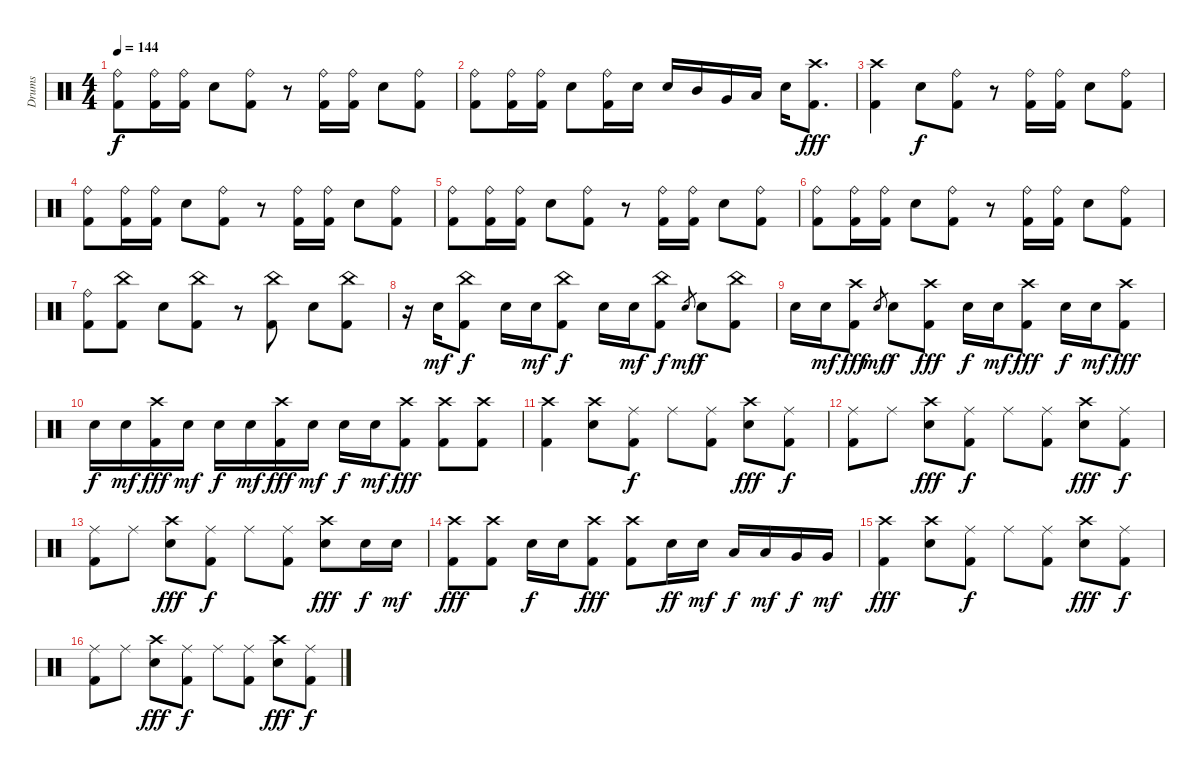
\track ("Drums" "Drums") {instrument percussion}
\staff {score}
\articulation defaults
\ts (4 4)
\tempo 144
\clef neutral
\ks c
("Ride (bell)" "Kick (hit) 2").8{dy f} ("Ride (bell)" "Kick (hit) 2").16 ("Ride (bell)" "Kick (hit) 2").16 "Snare (hit) 2".8 ("Ride (bell)" "Kick (hit) 2").8 r.8 ("Ride (bell)" "Kick (hit) 2").16 ("Ride (bell)" "Kick (hit) 2").16 "Snare (hit) 2".8 ("Ride (bell)" "Kick (hit) 2").8 |
("Ride (bell)" "Kick (hit) 2").8 ("Ride (bell)" "Kick (hit) 2").16 ("Ride (bell)" "Kick (hit) 2").16 "Snare (hit) 2".8 ("Ride (bell)" "Kick (hit) 2").16 "Snare (hit) 2".16 "Snare (hit) 2".16 "Mid Tom (hit)".16 "Very Low Tom (hit)".16 "Low Tom (hit)".16 "Snare (hit) 2".16 ("Crash high (hit)" "Kick (hit) 2").8{d dy fff} |
("Crash high (hit)" "Kick (hit) 2").4 "Snare (hit) 2".8{dy f} ("Ride (bell)" "Kick (hit) 2").8 r.8 ("Ride (bell)" "Kick (hit) 2").16 ("Ride (bell)" "Kick (hit) 2").16 "Snare (hit) 2".8 ("Ride (bell)" "Kick (hit) 2").8 |
("Ride (bell)" "Kick (hit) 2").8 ("Ride (bell)" "Kick (hit) 2").16 ("Ride (bell)" "Kick (hit) 2").16 "Snare (hit) 2".8 ("Ride (bell)" "Kick (hit) 2").8 r.8 ("Ride (bell)" "Kick (hit) 2").16 ("Ride (bell)" "Kick (hit) 2").16 "Snare (hit) 2".8 ("Ride (bell)" "Kick (hit) 2").8 |
("Ride (bell)" "Kick (hit) 2").8 ("Ride (bell)" "Kick (hit) 2").16 ("Ride (bell)" "Kick (hit) 2").16 "Snare (hit) 2".8 ("Ride (bell)" "Kick (hit) 2").8 r.8 ("Ride (bell)" "Kick (hit) 2").16 ("Ride (bell)" "Kick (hit) 2").16 "Snare (hit) 2".8 ("Ride (bell)" "Kick (hit) 2").8 |
("Ride (bell)" "Kick (hit) 2").8 ("Ride (bell)" "Kick (hit) 2").16 ("Ride (bell)" "Kick (hit) 2").16 "Snare (hit) 2".8 ("Ride (bell)" "Kick (hit) 2").8 r.8 ("Ride (bell)" "Kick (hit) 2").16 ("Ride (bell)" "Kick (hit) 2").16 "Snare (hit) 2".8 ("Ride (bell)" "Kick (hit) 2").8 |
("Ride (bell)" "Kick (hit) 2").8 ("China (hit)" "Kick (hit) 2").8 "Snare (hit) 2".8 ("China (hit)" "Kick (hit) 2").8 r.8 ("China (hit)" "Kick (hit) 2").8 "Snare (hit) 2".8 ("China (hit)" "Kick (hit) 2").8 |
r.16 "Snare (hit) 2".16{dy mf} ("China (hit)" "Kick (hit) 2").8{dy f} "Snare (hit) 2".16 "Snare (hit) 2".16{dy mf} ("China (hit)" "Kick (hit) 2").8{dy f} "Snare (hit) 2".16 "Snare (hit) 2".16{dy mf} ("China (hit)" "Kick (hit) 2").8{dy f} "Snare (hit)".8{gr dy mf} "Snare (hit) 2".8{dy f} ("China (hit)" "Kick (hit) 2").8 |
"Snare (hit) 2".16 "Snare (hit) 2".16{dy mf} ("Crash high (hit)" "Kick (hit) 2").8{dy fff} "Snare (hit)".8{gr dy mf} "Snare (hit) 2".8{dy f} ("Crash high (hit)" "Kick (hit) 2").8{dy fff} "Snare (hit) 2".16{dy f} "Snare (hit) 2".16{dy mf} ("Crash high (hit)" "Kick (hit) 2").8{dy fff} "Snare (hit) 2".16{dy f} "Snare (hit) 2".16{dy mf} ("Crash high (hit)" "Kick (hit) 2").8{dy fff} |
"Snare (hit) 2".16{dy f} "Snare (hit) 2".16{dy mf} ("Crash high (hit)" "Kick (hit) 2").16{dy fff} "Snare (hit) 2".16{dy mf} "Snare (hit) 2".16{dy f} "Snare (hit) 2".16{dy mf} ("Crash high (hit)" "Kick (hit) 2").16{dy fff} "Snare (hit) 2".16{dy mf} "Snare (hit) 2".16{dy f} "Snare (hit) 2".16{dy mf} ("Crash high (hit)" "Kick (hit) 2").8{dy fff} ("Crash high (hit)" "Kick (hit) 2").8 ("Crash high (hit)" "Kick (hit) 2").8 |
("Crash high (hit)" "Kick (hit) 2").4 ("Crash high (hit)" "Snare (hit) 2").8 ("Ride (middle)" "Kick (hit) 2").8{dy f} "Ride (middle)".8 ("Ride (middle)" "Kick (hit) 2").8 ("Crash high (hit)" "Snare (hit) 2").8{dy fff} ("Ride (middle)" "Kick (hit) 2").8{dy f} |
("Ride (middle)" "Kick (hit) 2").8 "Ride (middle)".8 ("Crash high (hit)" "Snare (hit) 2").8{dy fff} ("Ride (middle)" "Kick (hit) 2").8{dy f} "Ride (middle)".8 ("Ride (middle)" "Kick (hit) 2").8 ("Crash high (hit)" "Snare (hit) 2").8{dy fff} ("Ride (middle)" "Kick (hit) 2").8{dy f} |
("Ride (middle)" "Kick (hit) 2").8 "Ride (middle)".8 ("Crash high (hit)" "Snare (hit) 2").8{dy fff} ("Ride (middle)" "Kick (hit) 2").8{dy f} "Ride (middle)".8 ("Ride (middle)" "Kick (hit) 2").8 ("Crash high (hit)" "Snare (hit) 2").8{dy fff} "Snare (hit) 2".16{dy f} "Snare (hit) 2".16{dy mf} |
("Crash high (hit)" "Kick (hit) 2").8{dy fff} ("Crash high (hit)" "Kick (hit) 2").8 "Snare (hit) 2".16{dy f} "Snare (hit) 2".16 ("Crash high (hit)" "Kick (hit) 2").8{dy fff} ("Crash high (hit)" "Kick (hit) 2").8 "Snare (hit) 2".16{dy ff} "Snare (hit) 2".16{dy mf} "Low Tom (hit)".16{dy f} "Low Tom (hit)".16{dy mf} "Very Low Tom (hit)".16{dy f} "Very Low Tom (hit)".16{dy mf} |
("Crash high (hit)" "Kick (hit) 2").4{dy fff} ("Crash high (hit)" "Snare (hit) 2").8 ("Ride (middle)" "Kick (hit) 2").8{dy f} "Ride (middle)".8 ("Ride (middle)" "Kick (hit) 2").8 ("Crash high (hit)" "Snare (hit) 2").8{dy fff} ("Ride (middle)" "Kick (hit) 2").8{dy f} |
("Ride (middle)" "Kick (hit) 2").8 "Ride (middle)".8 ("Crash high (hit)" "Snare (hit) 2").8{dy fff} ("Ride (middle)" "Kick (hit) 2").8{dy f} "Ride (middle)".8 ("Ride (middle)" "Kick (hit) 2").8 ("Crash high (hit)" "Snare (hit) 2").8{dy fff} ("Ride (middle)" "Kick (hit) 2").8{dy f}
